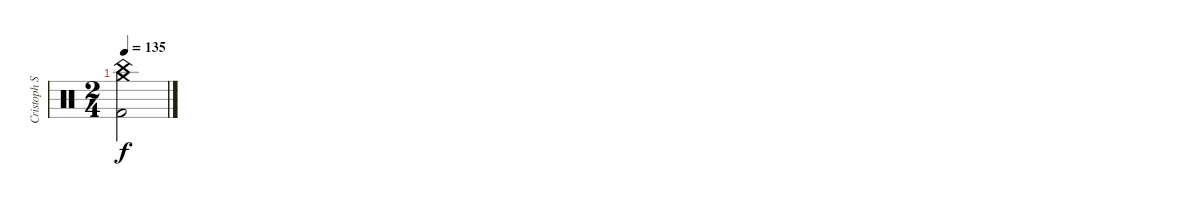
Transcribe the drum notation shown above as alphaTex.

\track ("Cristoph Schneider / Drums" "Cristoph S") {instrument percussion}
\staff {score}
\articulation defaults
\ts (2 4)
\tempo 135
\clef neutral
\ks c
("China (hit)" "Kick (hit) 2" "Crash medium (hit)").2{dy f}
